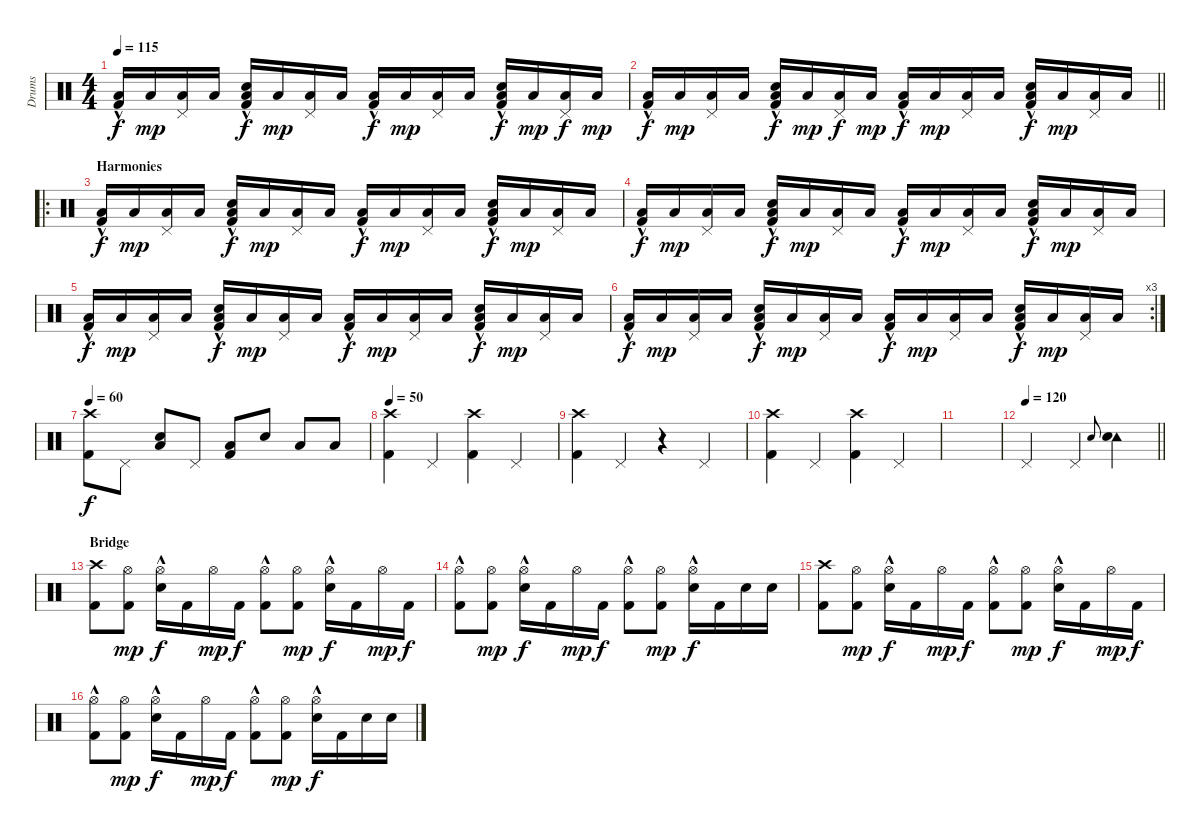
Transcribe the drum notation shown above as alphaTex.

\track ("Drums" "Drums") {instrument percussion}
\staff {score}
\articulation defaults
\ts (4 4)
\tempo 115
\clef neutral
\ks c
("Low Floor Tom (hit)"{hac} "Kick (hit) 2").16{dy f} "Low Floor Tom (hit)".16{dy mp} ("Pedal Hi-Hat (hit)" "Low Floor Tom (hit)").16 "Low Floor Tom (hit)".16 ("Low Floor Tom (hit)"{hac} "Snare (hit) 2" "Kick (hit) 2").16{dy f} "Low Floor Tom (hit)".16{dy mp} ("Pedal Hi-Hat (hit)" "Low Floor Tom (hit)").16 "Low Floor Tom (hit)".16 ("Low Floor Tom (hit)"{hac} "Kick (hit) 2").16{dy f} "Low Floor Tom (hit)".16{dy mp} ("Pedal Hi-Hat (hit)" "Low Floor Tom (hit)").16 "Low Floor Tom (hit)".16 ("Low Floor Tom (hit)"{hac} "Snare (hit) 2" "Kick (hit) 2").16{dy f} "Low Floor Tom (hit)".16{dy mp} ("Pedal Hi-Hat (hit)" "Low Floor Tom (hit)").16{dy f} "Low Floor Tom (hit)".16{dy mp} |
\barLineRight lightlight
("Low Floor Tom (hit)"{hac} "Kick (hit) 2").16{dy f} "Low Floor Tom (hit)".16{dy mp} ("Pedal Hi-Hat (hit)" "Low Floor Tom (hit)").16 "Low Floor Tom (hit)".16 ("Low Floor Tom (hit)"{hac} "Snare (hit) 2" "Kick (hit) 2").16{dy f} "Low Floor Tom (hit)".16{dy mp} ("Pedal Hi-Hat (hit)" "Low Floor Tom (hit)").16{dy f} "Low Floor Tom (hit)".16{dy mp} ("Low Floor Tom (hit)"{hac} "Kick (hit) 2").16{dy f} "Low Floor Tom (hit)".16{dy mp} ("Pedal Hi-Hat (hit)" "Low Floor Tom (hit)").16 "Low Floor Tom (hit)".16 ("Low Floor Tom (hit)"{hac} "Snare (hit) 2" "Kick (hit) 2").16{dy f} "Low Floor Tom (hit)".16{dy mp} ("Pedal Hi-Hat (hit)" "Low Floor Tom (hit)").16 "Low Floor Tom (hit)".16 |
\ro
\section ("" "Harmonies")
("Low Floor Tom (hit)"{hac} "Kick (hit) 2").16{dy f} "Low Floor Tom (hit)".16{dy mp} ("Pedal Hi-Hat (hit)" "Low Floor Tom (hit)").16 "Low Floor Tom (hit)".16 ("Low Floor Tom (hit)"{hac} "Snare (hit) 2" "Kick (hit) 2").16{dy f} "Low Floor Tom (hit)".16{dy mp} ("Pedal Hi-Hat (hit)" "Low Floor Tom (hit)").16 "Low Floor Tom (hit)".16 ("Low Floor Tom (hit)"{hac} "Kick (hit) 2").16{dy f} "Low Floor Tom (hit)".16{dy mp} ("Pedal Hi-Hat (hit)" "Low Floor Tom (hit)").16 "Low Floor Tom (hit)".16 ("Low Floor Tom (hit)"{hac} "Snare (hit) 2" "Kick (hit) 2").16{dy f} "Low Floor Tom (hit)".16{dy mp} ("Pedal Hi-Hat (hit)" "Low Floor Tom (hit)").16 "Low Floor Tom (hit)".16 |
("Low Floor Tom (hit)"{hac} "Kick (hit) 2").16{dy f} "Low Floor Tom (hit)".16{dy mp} ("Pedal Hi-Hat (hit)" "Low Floor Tom (hit)").16 "Low Floor Tom (hit)".16 ("Low Floor Tom (hit)"{hac} "Snare (hit) 2" "Kick (hit) 2").16{dy f} "Low Floor Tom (hit)".16{dy mp} ("Pedal Hi-Hat (hit)" "Low Floor Tom (hit)").16 "Low Floor Tom (hit)".16 ("Low Floor Tom (hit)"{hac} "Kick (hit) 2").16{dy f} "Low Floor Tom (hit)".16{dy mp} ("Pedal Hi-Hat (hit)" "Low Floor Tom (hit)").16 "Low Floor Tom (hit)".16 ("Low Floor Tom (hit)"{hac} "Snare (hit) 2" "Kick (hit) 2").16{dy f} "Low Floor Tom (hit)".16{dy mp} ("Pedal Hi-Hat (hit)" "Low Floor Tom (hit)").16 "Low Floor Tom (hit)".16 |
("Low Floor Tom (hit)"{hac} "Kick (hit) 2").16{dy f} "Low Floor Tom (hit)".16{dy mp} ("Pedal Hi-Hat (hit)" "Low Floor Tom (hit)").16 "Low Floor Tom (hit)".16 ("Low Floor Tom (hit)"{hac} "Snare (hit) 2" "Kick (hit) 2").16{dy f} "Low Floor Tom (hit)".16{dy mp} ("Pedal Hi-Hat (hit)" "Low Floor Tom (hit)").16 "Low Floor Tom (hit)".16 ("Low Floor Tom (hit)"{hac} "Kick (hit) 2").16{dy f} "Low Floor Tom (hit)".16{dy mp} ("Pedal Hi-Hat (hit)" "Low Floor Tom (hit)").16 "Low Floor Tom (hit)".16 ("Low Floor Tom (hit)"{hac} "Snare (hit) 2" "Kick (hit) 2").16{dy f} "Low Floor Tom (hit)".16{dy mp} ("Pedal Hi-Hat (hit)" "Low Floor Tom (hit)").16 "Low Floor Tom (hit)".16 |
\rc 3
("Low Floor Tom (hit)"{hac} "Kick (hit) 2").16{dy f} "Low Floor Tom (hit)".16{dy mp} ("Pedal Hi-Hat (hit)" "Low Floor Tom (hit)").16 "Low Floor Tom (hit)".16 ("Low Floor Tom (hit)"{hac} "Snare (hit) 2" "Kick (hit) 2").16{dy f} "Low Floor Tom (hit)".16{dy mp} ("Pedal Hi-Hat (hit)" "Low Floor Tom (hit)").16 "Low Floor Tom (hit)".16 ("Low Floor Tom (hit)"{hac} "Kick (hit) 2").16{dy f} "Low Floor Tom (hit)".16{dy mp} ("Pedal Hi-Hat (hit)" "Low Floor Tom (hit)").16 "Low Floor Tom (hit)".16 ("Low Floor Tom (hit)"{hac} "Snare (hit) 2" "Kick (hit) 2").16{dy f} "Low Floor Tom (hit)".16{dy mp} ("Pedal Hi-Hat (hit)" "Low Floor Tom (hit)").16 "Low Floor Tom (hit)".16 |
\tempo 60
("Crash high (hit)" "Kick (hit) 2").8{dy f} "Pedal Hi-Hat (hit)".8 ("Low Floor Tom (hit)" "Snare (hit) 2").8 "Pedal Hi-Hat (hit)".8 ("Low Floor Tom (hit)" "Kick (hit) 2").8 "Snare (hit) 2".8 "Low Tom (hit)".8 "Low Floor Tom (hit)".8 |
\tempo 50
("Crash high (hit)" "Kick (hit) 2").4 "Pedal Hi-Hat (hit)".4 ("Crash high (hit)" "Kick (hit) 2").4 "Pedal Hi-Hat (hit)".4 |
("Crash high (hit)" "Kick (hit) 2").4 "Pedal Hi-Hat (hit)".4 r.4 "Pedal Hi-Hat (hit)".4 |
("Crash high (hit)" "Kick (hit) 2").4 "Pedal Hi-Hat (hit)".4 ("Crash high (hit)" "Kick (hit) 2").4 "Pedal Hi-Hat (hit)".4 |
|
\tempo 120
\barLineRight lightlight "Pedal Hi-Hat (hit)".2 "Pedal Hi-Hat (hit)".4 "Snare (hit) 2".8{gr onbeat}
("Tambourine (hit)" "Snare (hit) 2").4 |
\section ("" "Bridge")
("Crash high (hit)" "Kick (hit) 2").8 ("Hi-Hat (open)" "Kick (hit) 2").8{dy mp} ("Hi-Hat (open)"{hac} "Snare (hit) 2").16{dy f} "Kick (hit) 2".16 "Hi-Hat (open)".16{dy mp} "Kick (hit) 2".16{dy f} ("Hi-Hat (open)"{hac} "Kick (hit) 2").8 ("Hi-Hat (open)" "Kick (hit) 2").8{dy mp} ("Hi-Hat (open)"{hac} "Snare (hit) 2").16{dy f} "Kick (hit) 2".16 "Hi-Hat (open)".16{dy mp} "Kick (hit) 2".16{dy f} |
("Hi-Hat (open)"{hac} "Kick (hit) 2").8 ("Hi-Hat (open)" "Kick (hit) 2").8{dy mp} ("Hi-Hat (open)"{hac} "Snare (hit) 2").16{dy f} "Kick (hit) 2".16 "Hi-Hat (open)".16{dy mp} "Kick (hit) 2".16{dy f} ("Hi-Hat (open)"{hac} "Kick (hit) 2").8 ("Hi-Hat (open)" "Kick (hit) 2").8{dy mp} ("Hi-Hat (open)"{hac} "Snare (hit) 2").16{dy f} "Kick (hit) 2".16 "Snare (hit) 2".16 "Snare (hit) 2".16 |
("Crash high (hit)" "Kick (hit) 2").8 ("Hi-Hat (open)" "Kick (hit) 2").8{dy mp} ("Hi-Hat (open)"{hac} "Snare (hit) 2").16{dy f} "Kick (hit) 2".16 "Hi-Hat (open)".16{dy mp} "Kick (hit) 2".16{dy f} ("Hi-Hat (open)"{hac} "Kick (hit) 2").8 ("Hi-Hat (open)" "Kick (hit) 2").8{dy mp} ("Hi-Hat (open)"{hac} "Snare (hit) 2").16{dy f} "Kick (hit) 2".16 "Hi-Hat (open)".16{dy mp} "Kick (hit) 2".16{dy f} |
("Hi-Hat (open)"{hac} "Kick (hit) 2").8 ("Hi-Hat (open)" "Kick (hit) 2").8{dy mp} ("Hi-Hat (open)"{hac} "Snare (hit) 2").16{dy f} "Kick (hit) 2".16 "Hi-Hat (open)".16{dy mp} "Kick (hit) 2".16{dy f} ("Hi-Hat (open)"{hac} "Kick (hit) 2").8 ("Hi-Hat (open)" "Kick (hit) 2").8{dy mp} ("Hi-Hat (open)"{hac} "Snare (hit) 2").16{dy f} "Kick (hit) 2".16 "Snare (hit) 2".16 "Snare (hit) 2".16
